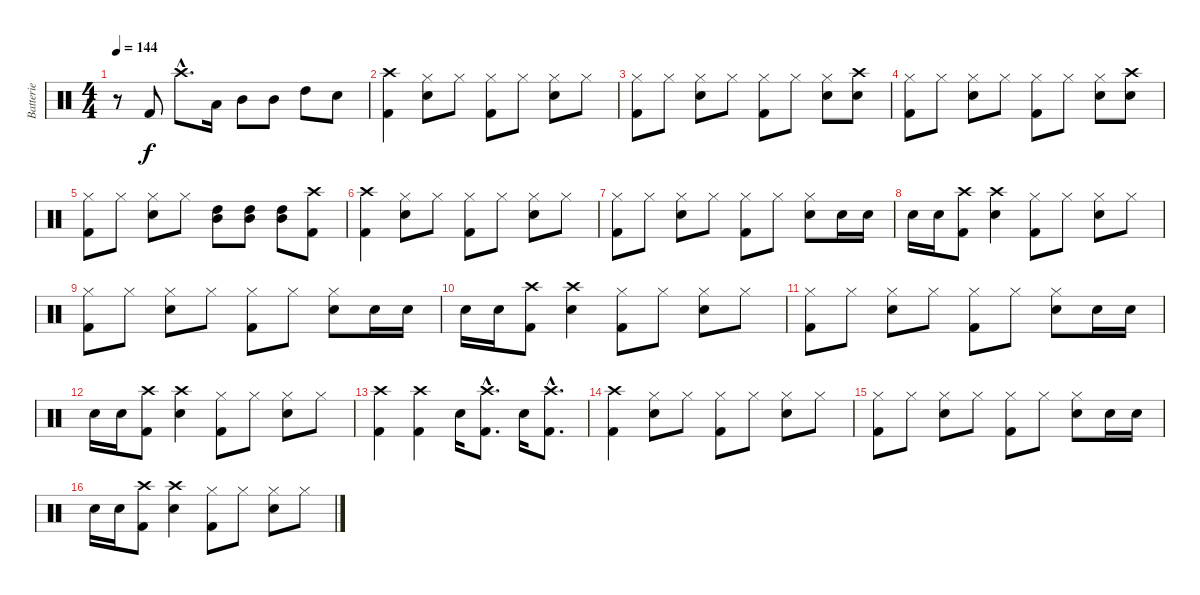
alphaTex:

\track ("Batterie" "Batterie") {instrument percussion}
\staff {score}
\articulation defaults
\ts (4 4)
\tempo 144
\clef neutral
\ks c
r.8{dy f} "Kick (hit) 2".8 "Crash high (hit)"{hac}.8{d} "Low Tom (hit)".16 "Mid Tom (hit)".8 "Mid Tom (hit)".8 "High Tom (hit)".8 "Snare (hit) 2".8 |
("Crash high (hit)" "Kick (hit) 2").4 ("Hi-Hat (closed)" "Snare (hit) 2").8 "Hi-Hat (closed)".8 ("Hi-Hat (closed)" "Kick (hit) 2").8 "Hi-Hat (closed)".8 ("Hi-Hat (closed)" "Snare (hit) 2").8 "Hi-Hat (closed)".8 |
("Hi-Hat (closed)" "Kick (hit) 2").8 "Hi-Hat (closed)".8 ("Hi-Hat (closed)" "Snare (hit) 2").8 "Hi-Hat (closed)".8 ("Hi-Hat (closed)" "Kick (hit) 2").8 "Hi-Hat (closed)".8 ("Hi-Hat (closed)" "Snare (hit) 2").8 ("Crash high (hit)" "Snare (hit) 2").8 |
("Hi-Hat (closed)" "Kick (hit) 2").8 "Hi-Hat (closed)".8 ("Hi-Hat (closed)" "Snare (hit) 2").8 "Hi-Hat (closed)".8 ("Hi-Hat (closed)" "Kick (hit) 2").8 "Hi-Hat (closed)".8 ("Hi-Hat (closed)" "Snare (hit) 2").8 ("Crash high (hit)" "Snare (hit) 2").8 |
("Hi-Hat (closed)" "Kick (hit) 2").8 "Hi-Hat (closed)".8 ("Hi-Hat (closed)" "Snare (hit) 2").8 "Hi-Hat (closed)".8 ("High Tom (hit)" "Mid Tom (hit)").8 ("High Tom (hit)" "Mid Tom (hit)").8 ("High Tom (hit)" "Mid Tom (hit)").8 ("Crash high (hit)" "Kick (hit) 2").8 |
("Crash high (hit)" "Kick (hit) 2").4 ("Hi-Hat (closed)" "Snare (hit) 2").8 "Hi-Hat (closed)".8 ("Hi-Hat (closed)" "Kick (hit) 2").8 "Hi-Hat (closed)".8 ("Hi-Hat (closed)" "Snare (hit) 2").8 "Hi-Hat (closed)".8 |
("Hi-Hat (closed)" "Kick (hit) 2").8 "Hi-Hat (closed)".8 ("Hi-Hat (closed)" "Snare (hit) 2").8 "Hi-Hat (closed)".8 ("Hi-Hat (closed)" "Kick (hit) 2").8 "Hi-Hat (closed)".8 ("Hi-Hat (closed)" "Snare (hit) 2").8 "Snare (hit) 2".16 "Snare (hit) 2".16 |
"Snare (hit) 2".16 "Snare (hit) 2".16 ("Crash high (hit)" "Kick (hit) 2").8 ("Crash high (hit)" "Snare (hit) 2").4 ("Hi-Hat (closed)" "Kick (hit) 2").8 "Hi-Hat (closed)".8 ("Hi-Hat (closed)" "Snare (hit) 2").8 "Hi-Hat (closed)".8 |
("Hi-Hat (closed)" "Kick (hit) 2").8 "Hi-Hat (closed)".8 ("Hi-Hat (closed)" "Snare (hit) 2").8 "Hi-Hat (closed)".8 ("Hi-Hat (closed)" "Kick (hit) 2").8 "Hi-Hat (closed)".8 ("Hi-Hat (closed)" "Snare (hit) 2").8 "Snare (hit) 2".16 "Snare (hit) 2".16 |
"Snare (hit) 2".16 "Snare (hit) 2".16 ("Crash high (hit)" "Kick (hit) 2").8 ("Crash high (hit)" "Snare (hit) 2").4 ("Hi-Hat (closed)" "Kick (hit) 2").8 "Hi-Hat (closed)".8 ("Hi-Hat (closed)" "Snare (hit) 2").8 "Hi-Hat (closed)".8 |
("Hi-Hat (closed)" "Kick (hit) 2").8 "Hi-Hat (closed)".8 ("Hi-Hat (closed)" "Snare (hit) 2").8 "Hi-Hat (closed)".8 ("Hi-Hat (closed)" "Kick (hit) 2").8 "Hi-Hat (closed)".8 ("Hi-Hat (closed)" "Snare (hit) 2").8 "Snare (hit) 2".16 "Snare (hit) 2".16 |
"Snare (hit) 2".16 "Snare (hit) 2".16 ("Crash high (hit)" "Kick (hit) 2").8 ("Crash high (hit)" "Snare (hit) 2").4 ("Hi-Hat (closed)" "Kick (hit) 2").8 "Hi-Hat (closed)".8 ("Hi-Hat (closed)" "Snare (hit) 2").8 "Hi-Hat (closed)".8 |
("Crash high (hit)" "Kick (hit) 2").4 ("Crash high (hit)" "Kick (hit) 2").4 "Snare (hit) 2".16 ("Crash high (hit)"{hac} "Kick (hit) 2"{hac}).8{d} "Snare (hit) 2".16 ("Crash high (hit)"{hac} "Kick (hit) 2"{hac}).8{d} |
("Crash high (hit)" "Kick (hit) 2").4 ("Hi-Hat (closed)" "Snare (hit) 2").8 "Hi-Hat (closed)".8 ("Hi-Hat (closed)" "Kick (hit) 2").8 "Hi-Hat (closed)".8 ("Hi-Hat (closed)" "Snare (hit) 2").8 "Hi-Hat (closed)".8 |
("Hi-Hat (closed)" "Kick (hit) 2").8 "Hi-Hat (closed)".8 ("Hi-Hat (closed)" "Snare (hit) 2").8 "Hi-Hat (closed)".8 ("Hi-Hat (closed)" "Kick (hit) 2").8 "Hi-Hat (closed)".8 ("Hi-Hat (closed)" "Snare (hit) 2").8 "Snare (hit) 2".16 "Snare (hit) 2".16 |
"Snare (hit) 2".16 "Snare (hit) 2".16 ("Crash high (hit)" "Kick (hit) 2").8 ("Crash high (hit)" "Snare (hit) 2").4 ("Hi-Hat (closed)" "Kick (hit) 2").8 "Hi-Hat (closed)".8 ("Hi-Hat (closed)" "Snare (hit) 2").8 "Hi-Hat (closed)".8
